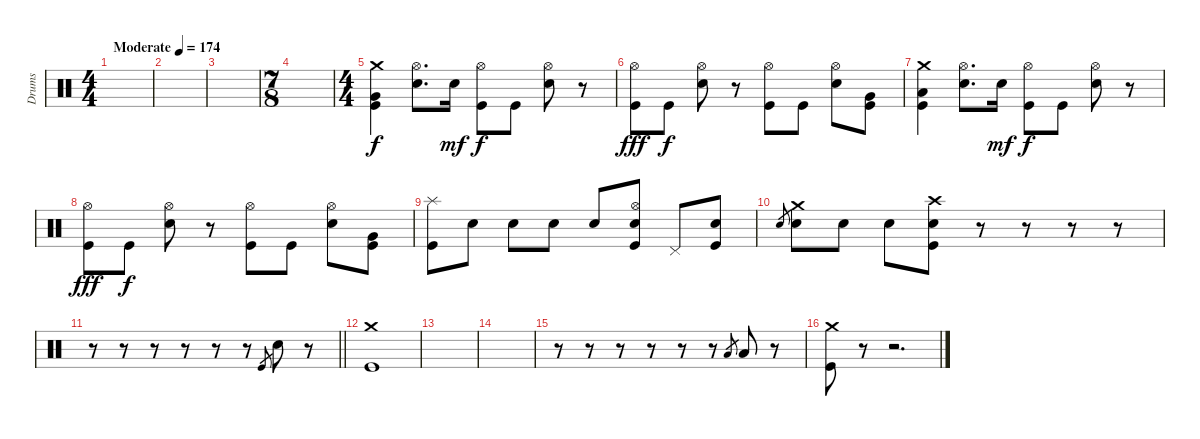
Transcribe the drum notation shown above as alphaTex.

\track ("Drums" "Drums") {instrument percussion}
\staff {score}
\articulation defaults
\ts (4 4)
\tempo (174 "Moderate")
\clef neutral
\ks c
|
|
|
\ts (7 8)
|
\ts (4 4)
("Crash medium (hit)" "Very Low Tom (hit)" "Kick (hit)").4 ("Hi-Hat (open)" "Electric Snare (hit)").8{d} "Electric Snare (hit)".16{dy mf} ("Hi-Hat (open)" "Kick (hit)").8{dy f} "Kick (hit)".8 ("Hi-Hat (open)" "Electric Snare (hit)").8 r.8 |
("Hi-Hat (open)" "Kick (hit)").8{dy fff} "Kick (hit)".8{dy f} ("Hi-Hat (open)" "Electric Snare (hit)").8 r.8 ("Hi-Hat (open)" "Kick (hit)").8 "Kick (hit)".8 ("Hi-Hat (open)" "Electric Snare (hit)").8 ("Very Low Tom (hit)" "Kick (hit)").8 |
("Crash medium (hit)" "Low Floor Tom (hit)" "Kick (hit)").4 ("Hi-Hat (open)" "Electric Snare (hit)").8{d} "Electric Snare (hit)".16{dy mf} ("Hi-Hat (open)" "Kick (hit)").8{dy f} "Kick (hit)".8 ("Hi-Hat (open)" "Electric Snare (hit)").8 r.8 |
("Hi-Hat (open)" "Kick (hit)").8{dy fff} "Kick (hit)".8{dy f} ("Hi-Hat (open)" "Electric Snare (hit)").8 r.8 ("Hi-Hat (open)" "Kick (hit)").8 "Kick (hit)".8 ("Hi-Hat (open)" "Electric Snare (hit)").8 ("Very Low Tom (hit)" "Kick (hit)").8 |
("Splash (hit)" "Kick (hit)").8 "Electric Snare (hit)".8 "Electric Snare (hit)".8 "Electric Snare (hit)".8 "Electric Snare (hit)".8 ("Hi-Hat (open)" "Electric Snare (hit)" "Kick (hit)").8 "Pedal Hi-Hat (hit)".8 ("Electric Snare (hit)" "Kick (hit)").8 |
"Electric Snare (hit)".8{gr} ("Crash medium (hit)" "Electric Snare (hit)").8 "Electric Snare (hit)".8 "Electric Snare (hit)".8 ("Crash high (hit)" "Electric Snare (hit)" "Kick (hit)").8 r.8 r.8 r.8 r.8 |
\barLineRight lightlight
r.8 r.8 r.8 r.8 r.8 r.8 "Kick (hit)".8{gr} "Electric Snare (hit)".8 r.8 |
("Crash medium (hit)" "Kick (hit)").1 |
|
|
r.8 r.8 r.8 r.8 r.8 r.8 "Low Floor Tom (hit)".8{gr} "Low Floor Tom (hit)".8 r.8 |
("Crash medium (hit)" "Kick (hit)").8 r.8 r.2{d}
